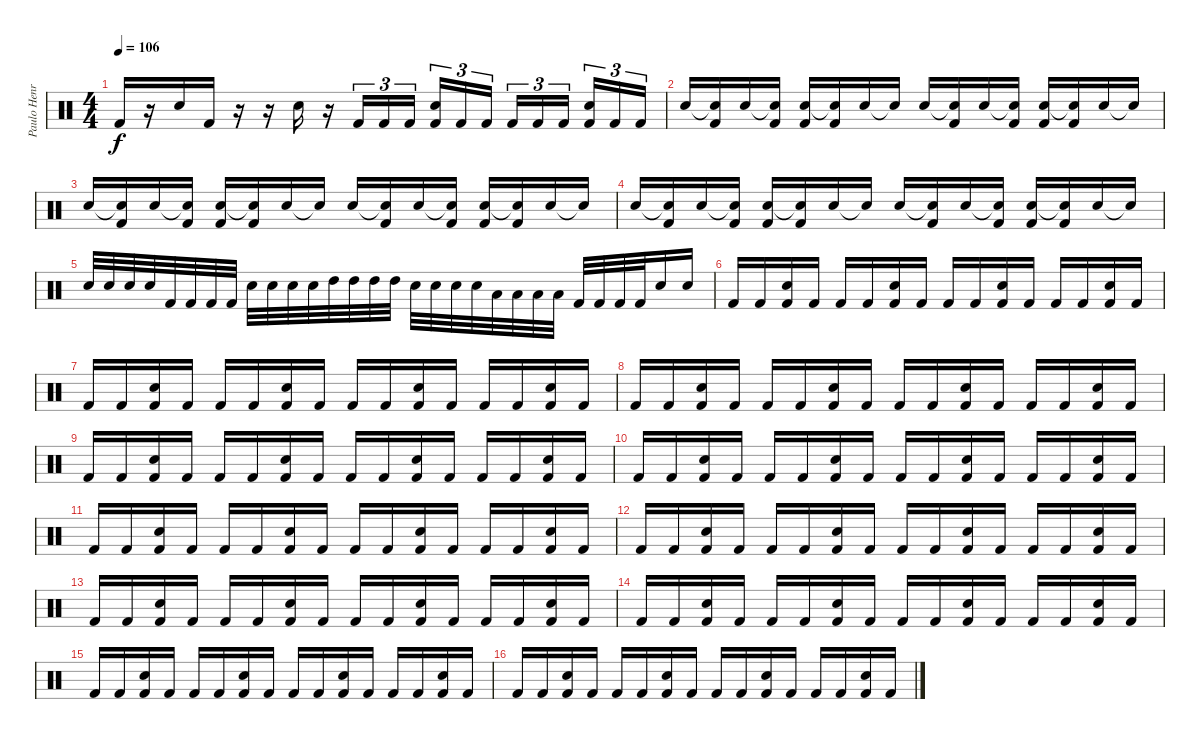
\track ("Paulo Henrique" "Paulo Henr") {instrument percussion}
\staff {score}
\articulation defaults
\ts (4 4)
\tempo 106
\clef neutral
\ks c "Kick (hit) 2".16{dy f}
r.16 "Electric Snare (hit)".16 "Kick (hit) 2".16 r.16 r.16 "Electric Snare (hit)".16 r.16 "Kick (hit) 2".16{tu (3 2)} "Kick (hit) 2".16{tu (3 2)} "Kick (hit) 2".16{tu (3 2)} ("Electric Snare (hit)" "Kick (hit) 2").16{tu (3 2)} "Kick (hit) 2".16{tu (3 2)} "Kick (hit) 2".16{tu (3 2)} "Kick (hit) 2".16{tu (3 2)} "Kick (hit) 2".16{tu (3 2)} "Kick (hit) 2".16{tu (3 2)} ("Electric Snare (hit)" "Kick (hit) 2").16{tu (3 2)} "Kick (hit) 2".16{tu (3 2)} "Kick (hit) 2".16{tu (3 2)} |
"Electric Snare (hit)".16 ("Snare (hit)"{t} "Kick (hit) 2").16 "Electric Snare (hit)".16 ("Snare (hit)"{t} "Kick (hit) 2").16 ("Electric Snare (hit)" "Kick (hit) 2").16 ("Snare (hit)"{t} "Kick (hit) 2").16 "Electric Snare (hit)".16 "Snare (hit)"{t}.16 "Electric Snare (hit)".16 ("Snare (hit)"{t} "Kick (hit) 2").16 "Electric Snare (hit)".16 ("Snare (hit)"{t} "Kick (hit) 2").16 ("Electric Snare (hit)" "Kick (hit) 2").16 ("Snare (hit)"{t} "Kick (hit) 2").16 "Electric Snare (hit)".16 "Snare (hit)"{t}.16 |
"Electric Snare (hit)".16 ("Snare (hit)"{t} "Kick (hit) 2").16 "Electric Snare (hit)".16 ("Snare (hit)"{t} "Kick (hit) 2").16 ("Electric Snare (hit)" "Kick (hit) 2").16 ("Snare (hit)"{t} "Kick (hit) 2").16 "Electric Snare (hit)".16 "Snare (hit)"{t}.16 "Electric Snare (hit)".16 ("Snare (hit)"{t} "Kick (hit) 2").16 "Electric Snare (hit)".16 ("Snare (hit)"{t} "Kick (hit) 2").16 ("Electric Snare (hit)" "Kick (hit) 2").16 ("Snare (hit)"{t} "Kick (hit) 2").16 "Electric Snare (hit)".16 "Snare (hit)"{t}.16 |
"Electric Snare (hit)".16 ("Snare (hit)"{t} "Kick (hit) 2").16 "Electric Snare (hit)".16 ("Snare (hit)"{t} "Kick (hit) 2").16 ("Electric Snare (hit)" "Kick (hit) 2").16 ("Snare (hit)"{t} "Kick (hit) 2").16 "Electric Snare (hit)".16 "Snare (hit)"{t}.16 "Electric Snare (hit)".16 ("Snare (hit)"{t} "Kick (hit) 2").16 "Electric Snare (hit)".16 ("Snare (hit)"{t} "Kick (hit) 2").16 ("Electric Snare (hit)" "Kick (hit) 2").16 ("Snare (hit)"{t} "Kick (hit) 2").16 "Electric Snare (hit)".16 "Snare (hit)"{t}.16 |
"Electric Snare (hit)".32 "Electric Snare (hit)".32 "Electric Snare (hit)".32 "Electric Snare (hit)".32 "Kick (hit) 2".32 "Kick (hit) 2".32 "Kick (hit) 2".32 "Kick (hit) 2".32 "Electric Snare (hit)".32 "Electric Snare (hit)".32 "Electric Snare (hit)".32 "Electric Snare (hit)".32 "High Tom (hit)".32 "High Tom (hit)".32 "High Tom (hit)".32 "High Tom (hit)".32 "Electric Snare (hit)".32 "Electric Snare (hit)".32 "Electric Snare (hit)".32 "Electric Snare (hit)".32 "Low Tom (hit)".32 "Low Tom (hit)".32 "Low Tom (hit)".32 "Low Tom (hit)".32 "Kick (hit) 2".32 "Kick (hit) 2".32 "Kick (hit) 2".32 "Kick (hit) 2".32 "Electric Snare (hit)".16 "Electric Snare (hit)".16 |
"Kick (hit) 2".16 "Kick (hit) 2".16 ("Electric Snare (hit)" "Kick (hit) 2").16 "Kick (hit) 2".16 "Kick (hit) 2".16 "Kick (hit) 2".16 ("Electric Snare (hit)" "Kick (hit) 2").16 "Kick (hit) 2".16 "Kick (hit) 2".16 "Kick (hit) 2".16 ("Electric Snare (hit)" "Kick (hit) 2").16 "Kick (hit) 2".16 "Kick (hit) 2".16 "Kick (hit) 2".16 ("Electric Snare (hit)" "Kick (hit) 2").16 "Kick (hit) 2".16 |
"Kick (hit) 2".16 "Kick (hit) 2".16 ("Electric Snare (hit)" "Kick (hit) 2").16 "Kick (hit) 2".16 "Kick (hit) 2".16 "Kick (hit) 2".16 ("Electric Snare (hit)" "Kick (hit) 2").16 "Kick (hit) 2".16 "Kick (hit) 2".16 "Kick (hit) 2".16 ("Electric Snare (hit)" "Kick (hit) 2").16 "Kick (hit) 2".16 "Kick (hit) 2".16 "Kick (hit) 2".16 ("Electric Snare (hit)" "Kick (hit) 2").16 "Kick (hit) 2".16 |
"Kick (hit) 2".16 "Kick (hit) 2".16 ("Electric Snare (hit)" "Kick (hit) 2").16 "Kick (hit) 2".16 "Kick (hit) 2".16 "Kick (hit) 2".16 ("Electric Snare (hit)" "Kick (hit) 2").16 "Kick (hit) 2".16 "Kick (hit) 2".16 "Kick (hit) 2".16 ("Electric Snare (hit)" "Kick (hit) 2").16 "Kick (hit) 2".16 "Kick (hit) 2".16 "Kick (hit) 2".16 ("Electric Snare (hit)" "Kick (hit) 2").16 "Kick (hit) 2".16 |
"Kick (hit) 2".16 "Kick (hit) 2".16 ("Electric Snare (hit)" "Kick (hit) 2").16 "Kick (hit) 2".16 "Kick (hit) 2".16 "Kick (hit) 2".16 ("Electric Snare (hit)" "Kick (hit) 2").16 "Kick (hit) 2".16 "Kick (hit) 2".16 "Kick (hit) 2".16 ("Electric Snare (hit)" "Kick (hit) 2").16 "Kick (hit) 2".16 "Kick (hit) 2".16 "Kick (hit) 2".16 ("Electric Snare (hit)" "Kick (hit) 2").16 "Kick (hit) 2".16 |
"Kick (hit) 2".16 "Kick (hit) 2".16 ("Electric Snare (hit)" "Kick (hit) 2").16 "Kick (hit) 2".16 "Kick (hit) 2".16 "Kick (hit) 2".16 ("Electric Snare (hit)" "Kick (hit) 2").16 "Kick (hit) 2".16 "Kick (hit) 2".16 "Kick (hit) 2".16 ("Electric Snare (hit)" "Kick (hit) 2").16 "Kick (hit) 2".16 "Kick (hit) 2".16 "Kick (hit) 2".16 ("Electric Snare (hit)" "Kick (hit) 2").16 "Kick (hit) 2".16 |
"Kick (hit) 2".16 "Kick (hit) 2".16 ("Electric Snare (hit)" "Kick (hit) 2").16 "Kick (hit) 2".16 "Kick (hit) 2".16 "Kick (hit) 2".16 ("Electric Snare (hit)" "Kick (hit) 2").16 "Kick (hit) 2".16 "Kick (hit) 2".16 "Kick (hit) 2".16 ("Electric Snare (hit)" "Kick (hit) 2").16 "Kick (hit) 2".16 "Kick (hit) 2".16 "Kick (hit) 2".16 ("Electric Snare (hit)" "Kick (hit) 2").16 "Kick (hit) 2".16 |
"Kick (hit) 2".16 "Kick (hit) 2".16 ("Electric Snare (hit)" "Kick (hit) 2").16 "Kick (hit) 2".16 "Kick (hit) 2".16 "Kick (hit) 2".16 ("Electric Snare (hit)" "Kick (hit) 2").16 "Kick (hit) 2".16 "Kick (hit) 2".16 "Kick (hit) 2".16 ("Electric Snare (hit)" "Kick (hit) 2").16 "Kick (hit) 2".16 "Kick (hit) 2".16 "Kick (hit) 2".16 ("Electric Snare (hit)" "Kick (hit) 2").16 "Kick (hit) 2".16 |
"Kick (hit) 2".16 "Kick (hit) 2".16 ("Electric Snare (hit)" "Kick (hit) 2").16 "Kick (hit) 2".16 "Kick (hit) 2".16 "Kick (hit) 2".16 ("Electric Snare (hit)" "Kick (hit) 2").16 "Kick (hit) 2".16 "Kick (hit) 2".16 "Kick (hit) 2".16 ("Electric Snare (hit)" "Kick (hit) 2").16 "Kick (hit) 2".16 "Kick (hit) 2".16 "Kick (hit) 2".16 ("Electric Snare (hit)" "Kick (hit) 2").16 "Kick (hit) 2".16 |
"Kick (hit) 2".16 "Kick (hit) 2".16 ("Electric Snare (hit)" "Kick (hit) 2").16 "Kick (hit) 2".16 "Kick (hit) 2".16 "Kick (hit) 2".16 ("Electric Snare (hit)" "Kick (hit) 2").16 "Kick (hit) 2".16 "Kick (hit) 2".16 "Kick (hit) 2".16 ("Electric Snare (hit)" "Kick (hit) 2").16 "Kick (hit) 2".16 "Kick (hit) 2".16 "Kick (hit) 2".16 ("Electric Snare (hit)" "Kick (hit) 2").16 "Kick (hit) 2".16 |
"Kick (hit) 2".16 "Kick (hit) 2".16 ("Electric Snare (hit)" "Kick (hit) 2").16 "Kick (hit) 2".16 "Kick (hit) 2".16 "Kick (hit) 2".16 ("Electric Snare (hit)" "Kick (hit) 2").16 "Kick (hit) 2".16 "Kick (hit) 2".16 "Kick (hit) 2".16 ("Electric Snare (hit)" "Kick (hit) 2").16 "Kick (hit) 2".16 "Kick (hit) 2".16 "Kick (hit) 2".16 ("Electric Snare (hit)" "Kick (hit) 2").16 "Kick (hit) 2".16 |
"Kick (hit) 2".16 "Kick (hit) 2".16 ("Electric Snare (hit)" "Kick (hit) 2").16 "Kick (hit) 2".16 "Kick (hit) 2".16 "Kick (hit) 2".16 ("Electric Snare (hit)" "Kick (hit) 2").16 "Kick (hit) 2".16 "Kick (hit) 2".16 "Kick (hit) 2".16 ("Electric Snare (hit)" "Kick (hit) 2").16 "Kick (hit) 2".16 "Kick (hit) 2".16 "Kick (hit) 2".16 ("Electric Snare (hit)" "Kick (hit) 2").16 "Kick (hit) 2".16
